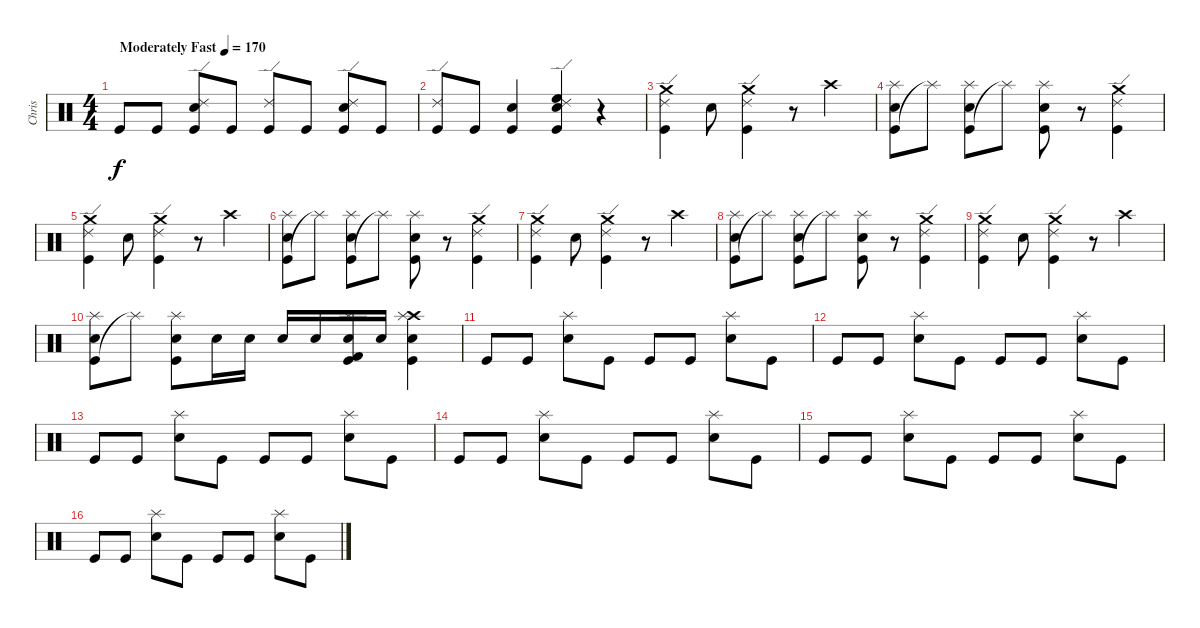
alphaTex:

\track ("Chris" "Chris") {instrument percussion}
\staff {score}
\articulation defaults
\ts (4 4)
\tempo (170 "Moderately Fast")
\clef neutral
\ks c "Kick (hit)".8{dy f} "Kick (hit)".8
("Kick (hit)" "Ride (edge) 2" "Snare (hit) 2").8 "Kick (hit)".8 ("Kick (hit)" "Ride (edge) 2").8 "Kick (hit)".8 ("Kick (hit)" "Ride (edge) 2" "Snare (hit) 2").8 "Kick (hit)".8 |
("Kick (hit)" "Ride (edge) 2").8 "Kick (hit)".8 ("Kick (hit)" "Snare (hit) 2").4 ("Kick (hit)" "High Floor Tom (hit)" "Ride (edge) 2" "Snare (hit) 2").4 r.4 |
("Kick (hit)" "Ride (edge) 2" "Crash medium (hit)").4 "Snare (hit) 2".8 ("Kick (hit)" "Ride (edge) 2" "Crash medium (hit)").4 r.8 "Crash high (hit)".4 |
("Kick (hit)" "Splash (hit)" "Snare (hit) 2").8 "Splash (hit)"{t}.8 ("Kick (hit)" "Splash (hit)" "Snare (hit) 2").8 "Splash (hit)"{t}.8 ("Kick (hit)" "Splash (hit)" "Snare (hit) 2").8 r.8 ("Kick (hit)" "Ride (edge) 2" "Crash medium (hit)").4 |
("Kick (hit)" "Ride (edge) 2" "Crash medium (hit)").4 "Snare (hit) 2".8 ("Kick (hit)" "Ride (edge) 2" "Crash medium (hit)").4 r.8 "Crash high (hit)".4 |
("Kick (hit)" "Splash (hit)" "Snare (hit) 2").8 "Splash (hit)"{t}.8 ("Kick (hit)" "Splash (hit)" "Snare (hit) 2").8 "Splash (hit)"{t}.8 ("Kick (hit)" "Splash (hit)" "Snare (hit) 2").8 r.8 ("Kick (hit)" "Ride (edge) 2" "Crash medium (hit)").4 |
("Kick (hit)" "Ride (edge) 2" "Crash medium (hit)").4 "Snare (hit) 2".8 ("Kick (hit)" "Ride (edge) 2" "Crash medium (hit)").4 r.8 "Crash high (hit)".4 |
("Kick (hit)" "Splash (hit)" "Snare (hit) 2").8 "Splash (hit)"{t}.8 ("Kick (hit)" "Splash (hit)" "Snare (hit) 2").8 "Splash (hit)"{t}.8 ("Kick (hit)" "Splash (hit)" "Snare (hit) 2").8 r.8 ("Kick (hit)" "Ride (edge) 2" "Crash medium (hit)").4 |
("Kick (hit)" "Ride (edge) 2" "Crash medium (hit)").4 "Snare (hit) 2".8 ("Kick (hit)" "Ride (edge) 2" "Crash medium (hit)").4 r.8 "Crash high (hit)".4 |
("Kick (hit)" "Splash (hit)" "Snare (hit) 2").8 "Splash (hit)"{t}.8 ("Kick (hit)" "Splash (hit)" "Snare (hit) 2").8 "Electric Snare (hit)".16 "Electric Snare (hit)".16 "Electric Snare (hit)".16 "Electric Snare (hit)".16 ("Kick (hit)" "Splash (hit)" "Electric Snare (hit)" "Kick (hit) 2").16 "Electric Snare (hit)".16 ("Kick (hit)" "Crash high (hit)" "Splash (hit)" "Snare (hit) 2").4 |
"Kick (hit)".8 "Kick (hit)".8 ("Splash (hit)" "Snare (hit) 2").8 "Kick (hit)".8 "Kick (hit)".8 "Kick (hit)".8 ("Splash (hit)" "Snare (hit) 2").8 "Kick (hit)".8 |
"Kick (hit)".8 "Kick (hit)".8 ("Splash (hit)" "Snare (hit) 2").8 "Kick (hit)".8 "Kick (hit)".8 "Kick (hit)".8 ("Splash (hit)" "Snare (hit) 2").8 "Kick (hit)".8 |
"Kick (hit)".8 "Kick (hit)".8 ("Splash (hit)" "Snare (hit) 2").8 "Kick (hit)".8 "Kick (hit)".8 "Kick (hit)".8 ("Splash (hit)" "Snare (hit) 2").8 "Kick (hit)".8 |
"Kick (hit)".8 "Kick (hit)".8 ("Splash (hit)" "Snare (hit) 2").8 "Kick (hit)".8 "Kick (hit)".8 "Kick (hit)".8 ("Splash (hit)" "Snare (hit) 2").8 "Kick (hit)".8 |
"Kick (hit)".8 "Kick (hit)".8 ("Splash (hit)" "Snare (hit) 2").8 "Kick (hit)".8 "Kick (hit)".8 "Kick (hit)".8 ("Splash (hit)" "Snare (hit) 2").8 "Kick (hit)".8 |
"Kick (hit)".8 "Kick (hit)".8 ("Splash (hit)" "Snare (hit) 2").8 "Kick (hit)".8 "Kick (hit)".8 "Kick (hit)".8 ("Splash (hit)" "Snare (hit) 2").8 "Kick (hit)".8
